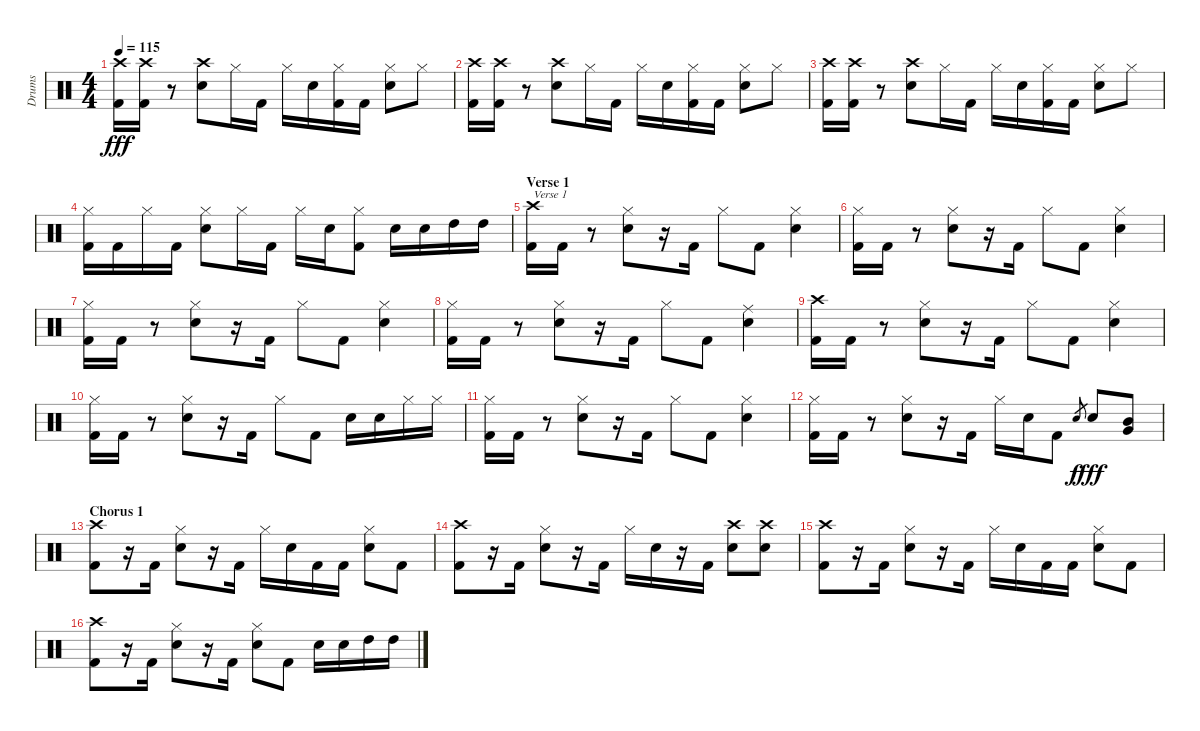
\track ("Drums" "Drums") {instrument percussion}
\staff {score}
\articulation defaults
\ts (4 4)
\tempo 115
\clef neutral
\ks c
("Crash high (hit)" "Kick (hit) 2").16{dy fff} ("Crash high (hit)" "Kick (hit) 2").16 r.8 ("Crash high (hit)" "Electric Snare (hit)").8 "Hi-Hat (closed)".16 "Kick (hit) 2".16 "Hi-Hat (closed)".16 "Electric Snare (hit)".16 ("Hi-Hat (closed)" "Kick (hit) 2").16 "Kick (hit) 2".16 ("Hi-Hat (closed)" "Electric Snare (hit)").8 "Hi-Hat (closed)".8 |
("Crash high (hit)" "Kick (hit) 2").16 ("Crash high (hit)" "Kick (hit) 2").16 r.8 ("Crash high (hit)" "Electric Snare (hit)").8 "Hi-Hat (closed)".16 "Kick (hit) 2".16 "Hi-Hat (closed)".16 "Electric Snare (hit)".16 ("Hi-Hat (closed)" "Kick (hit) 2").16 "Kick (hit) 2".16 ("Hi-Hat (closed)" "Electric Snare (hit)").8 "Hi-Hat (closed)".8 |
("Crash high (hit)" "Kick (hit) 2").16 ("Crash high (hit)" "Kick (hit) 2").16 r.8 ("Crash high (hit)" "Electric Snare (hit)").8 "Hi-Hat (closed)".16 "Kick (hit) 2".16 "Hi-Hat (closed)".16 "Electric Snare (hit)".16 ("Hi-Hat (closed)" "Kick (hit) 2").16 "Kick (hit) 2".16 ("Hi-Hat (closed)" "Electric Snare (hit)").8 "Hi-Hat (closed)".8 |
("Hi-Hat (closed)" "Kick (hit) 2").16 "Kick (hit) 2".16 "Hi-Hat (closed)".16 "Kick (hit) 2".16 ("Hi-Hat (closed)" "Electric Snare (hit)").8 "Hi-Hat (closed)".16 "Kick (hit) 2".16 "Hi-Hat (closed)".16 "Electric Snare (hit)".16 ("Hi-Hat (closed)" "Kick (hit) 2").8 "Electric Snare (hit)".16 "Electric Snare (hit)".16 "High Tom (hit)".16 "High Tom (hit)".16 |
\section ("" "Verse 1")
("Crash high (hit)" "Kick (hit) 2").16{txt "Verse 1"} "Kick (hit) 2".16 r.8 ("Hi-Hat (closed)" "Electric Snare (hit)").8 r.16 "Kick (hit) 2".16 "Hi-Hat (closed)".8 "Kick (hit) 2".8 ("Hi-Hat (closed)" "Electric Snare (hit)").4 |
("Hi-Hat (closed)" "Kick (hit) 2").16 "Kick (hit) 2".16 r.8 ("Hi-Hat (closed)" "Electric Snare (hit)").8 r.16 "Kick (hit) 2".16 "Hi-Hat (closed)".8 "Kick (hit) 2".8 ("Hi-Hat (closed)" "Electric Snare (hit)").4 |
("Hi-Hat (closed)" "Kick (hit) 2").16 "Kick (hit) 2".16 r.8 ("Hi-Hat (closed)" "Electric Snare (hit)").8 r.16 "Kick (hit) 2".16 "Hi-Hat (closed)".8 "Kick (hit) 2".8 ("Hi-Hat (closed)" "Electric Snare (hit)").4 |
("Hi-Hat (closed)" "Kick (hit) 2").16 "Kick (hit) 2".16 r.8 ("Hi-Hat (closed)" "Electric Snare (hit)").8 r.16 "Kick (hit) 2".16 "Hi-Hat (closed)".8 "Kick (hit) 2".8 ("Ride (middle)" "Electric Snare (hit)").4 |
("Crash high (hit)" "Kick (hit) 2").16 "Kick (hit) 2".16 r.8 ("Hi-Hat (closed)" "Electric Snare (hit)").8 r.16 "Kick (hit) 2".16 "Hi-Hat (closed)".8 "Kick (hit) 2".8 ("Hi-Hat (closed)" "Electric Snare (hit)").4 |
("Hi-Hat (closed)" "Kick (hit) 2").16 "Kick (hit) 2".16 r.8 ("Hi-Hat (closed)" "Electric Snare (hit)").8 r.16 "Kick (hit) 2".16 "Hi-Hat (closed)".8 "Kick (hit) 2".8 "Electric Snare (hit)".16 "Electric Snare (hit)".16 "Hi-Hat (closed)".16 "Hi-Hat (closed)".16 |
("Hi-Hat (closed)" "Kick (hit) 2").16 "Kick (hit) 2".16 r.8 ("Hi-Hat (closed)" "Electric Snare (hit)").8 r.16 "Kick (hit) 2".16 "Hi-Hat (closed)".8 "Kick (hit) 2".8 ("Hi-Hat (closed)" "Electric Snare (hit)").4 |
("Hi-Hat (closed)" "Kick (hit) 2").16 "Kick (hit) 2".16 r.8 ("Hi-Hat (closed)" "Electric Snare (hit)").8 r.16 "Kick (hit) 2".16 "Hi-Hat (closed)".16 "Electric Snare (hit)".16 "Kick (hit) 2".8 "Electric Snare (hit)".8{gr dy f} "Electric Snare (hit)".8{dy fff} ("Mid Tom (hit)" "Very Low Tom (hit)").8 |
\section ("" "Chorus 1")
("Crash high (hit)" "Kick (hit) 2").8 r.16 "Kick (hit) 2".16 ("Hi-Hat (closed)" "Electric Snare (hit)").8 r.16 "Kick (hit) 2".16 "Hi-Hat (closed)".16 "Electric Snare (hit)".16 "Kick (hit) 2".16 "Kick (hit) 2".16 ("Hi-Hat (closed)" "Electric Snare (hit)").8 "Kick (hit) 2".8 |
("Crash high (hit)" "Kick (hit) 2").8 r.16 "Kick (hit) 2".16 ("Hi-Hat (closed)" "Electric Snare (hit)").8 r.16 "Kick (hit) 2".16 "Hi-Hat (closed)".16 "Electric Snare (hit)".16 r.16 "Kick (hit) 2".16 ("Crash high (hit)" "Electric Snare (hit)").8 ("Crash high (hit)" "Electric Snare (hit)").8 |
("Crash high (hit)" "Kick (hit) 2").8 r.16 "Kick (hit) 2".16 ("Hi-Hat (closed)" "Electric Snare (hit)").8 r.16 "Kick (hit) 2".16 "Hi-Hat (closed)".16 "Electric Snare (hit)".16 "Kick (hit) 2".16 "Kick (hit) 2".16 ("Hi-Hat (closed)" "Electric Snare (hit)").8 "Kick (hit) 2".8 |
("Crash high (hit)" "Kick (hit) 2").8 r.16 "Kick (hit) 2".16 ("Hi-Hat (closed)" "Electric Snare (hit)").8 r.16 "Kick (hit) 2".16 ("Hi-Hat (closed)" "Electric Snare (hit)").8 "Kick (hit) 2".8 "Electric Snare (hit)".16 "Electric Snare (hit)".16 "High Tom (hit)".16 "High Tom (hit)".16
